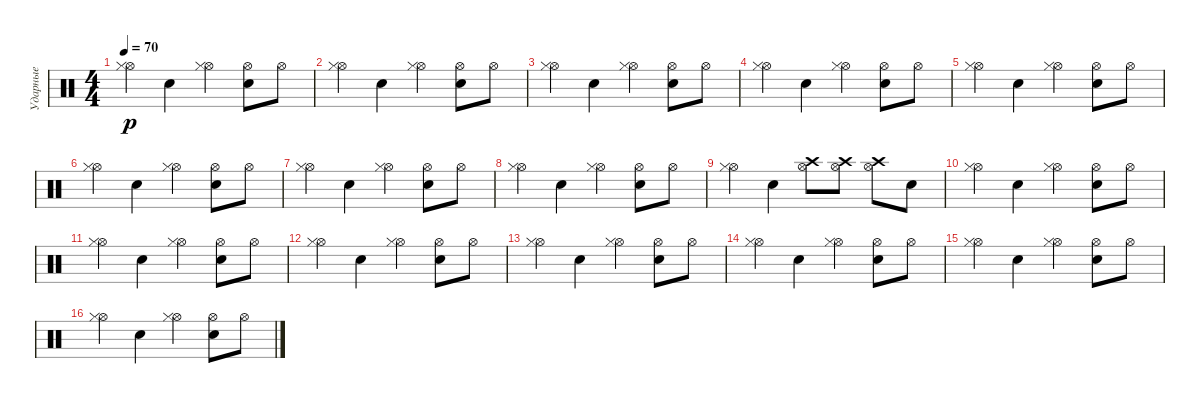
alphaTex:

\track ("Ударные" "Ударные") {instrument percussion}
\staff {score}
\articulation defaults
\ts (4 4)
\tempo 70
\clef neutral
\ks c
("Hi-Hat (open)" "Hi-Hat (closed)").4{dy p} "Electric Snare (hit)".4 ("Hi-Hat (open)" "Hi-Hat (closed)").4 ("Hi-Hat (open)" "Electric Snare (hit)").8 "Hi-Hat (open)".8 |
("Hi-Hat (open)" "Hi-Hat (closed)").4 "Electric Snare (hit)".4 ("Hi-Hat (open)" "Hi-Hat (closed)").4 ("Hi-Hat (open)" "Electric Snare (hit)").8 "Hi-Hat (open)".8 |
("Hi-Hat (open)" "Hi-Hat (closed)").4 "Electric Snare (hit)".4 ("Hi-Hat (open)" "Hi-Hat (closed)").4 ("Hi-Hat (open)" "Electric Snare (hit)").8 "Hi-Hat (open)".8 |
("Hi-Hat (open)" "Hi-Hat (closed)").4 "Electric Snare (hit)".4 ("Hi-Hat (open)" "Hi-Hat (closed)").4 ("Hi-Hat (open)" "Electric Snare (hit)").8 "Hi-Hat (open)".8 |
("Hi-Hat (open)" "Hi-Hat (closed)").4 "Electric Snare (hit)".4 ("Hi-Hat (open)" "Hi-Hat (closed)").4 ("Hi-Hat (open)" "Electric Snare (hit)").8 "Hi-Hat (open)".8 |
("Hi-Hat (open)" "Hi-Hat (closed)").4 "Electric Snare (hit)".4 ("Hi-Hat (open)" "Hi-Hat (closed)").4 ("Hi-Hat (open)" "Electric Snare (hit)").8 "Hi-Hat (open)".8 |
("Hi-Hat (open)" "Hi-Hat (closed)").4 "Electric Snare (hit)".4 ("Hi-Hat (open)" "Hi-Hat (closed)").4 ("Hi-Hat (open)" "Electric Snare (hit)").8 "Hi-Hat (open)".8 |
("Hi-Hat (open)" "Hi-Hat (closed)").4 "Electric Snare (hit)".4 ("Hi-Hat (open)" "Hi-Hat (closed)").4 ("Hi-Hat (open)" "Electric Snare (hit)").8 "Hi-Hat (open)".8 |
("Hi-Hat (open)" "Hi-Hat (closed)").4 "Electric Snare (hit)".4 ("Hi-Hat (open)" "Crash high (hit)").8 ("Hi-Hat (open)" "Crash high (hit)").8 ("Hi-Hat (open)" "Crash high (hit)").8 "Electric Snare (hit)".8 |
("Hi-Hat (open)" "Hi-Hat (closed)").4{volume 15} "Electric Snare (hit)".4 ("Hi-Hat (open)" "Hi-Hat (closed)").4 ("Hi-Hat (open)" "Electric Snare (hit)").8 "Hi-Hat (open)".8 |
("Hi-Hat (open)" "Hi-Hat (closed)").4 "Electric Snare (hit)".4 ("Hi-Hat (open)" "Hi-Hat (closed)").4 ("Hi-Hat (open)" "Electric Snare (hit)").8 "Hi-Hat (open)".8 |
("Hi-Hat (open)" "Hi-Hat (closed)").4 "Electric Snare (hit)".4 ("Hi-Hat (open)" "Hi-Hat (closed)").4 ("Hi-Hat (open)" "Electric Snare (hit)").8 "Hi-Hat (open)".8 |
("Hi-Hat (open)" "Hi-Hat (closed)").4 "Electric Snare (hit)".4 ("Hi-Hat (open)" "Hi-Hat (closed)").4 ("Hi-Hat (open)" "Electric Snare (hit)").8 "Hi-Hat (open)".8 |
("Hi-Hat (open)" "Hi-Hat (closed)").4 "Electric Snare (hit)".4 ("Hi-Hat (open)" "Hi-Hat (closed)").4 ("Hi-Hat (open)" "Electric Snare (hit)").8 "Hi-Hat (open)".8 |
("Hi-Hat (open)" "Hi-Hat (closed)").4 "Electric Snare (hit)".4 ("Hi-Hat (open)" "Hi-Hat (closed)").4 ("Hi-Hat (open)" "Electric Snare (hit)").8 "Hi-Hat (open)".8 |
("Hi-Hat (open)" "Hi-Hat (closed)").4 "Electric Snare (hit)".4 ("Hi-Hat (open)" "Hi-Hat (closed)").4 ("Hi-Hat (open)" "Electric Snare (hit)").8 "Hi-Hat (open)".8
